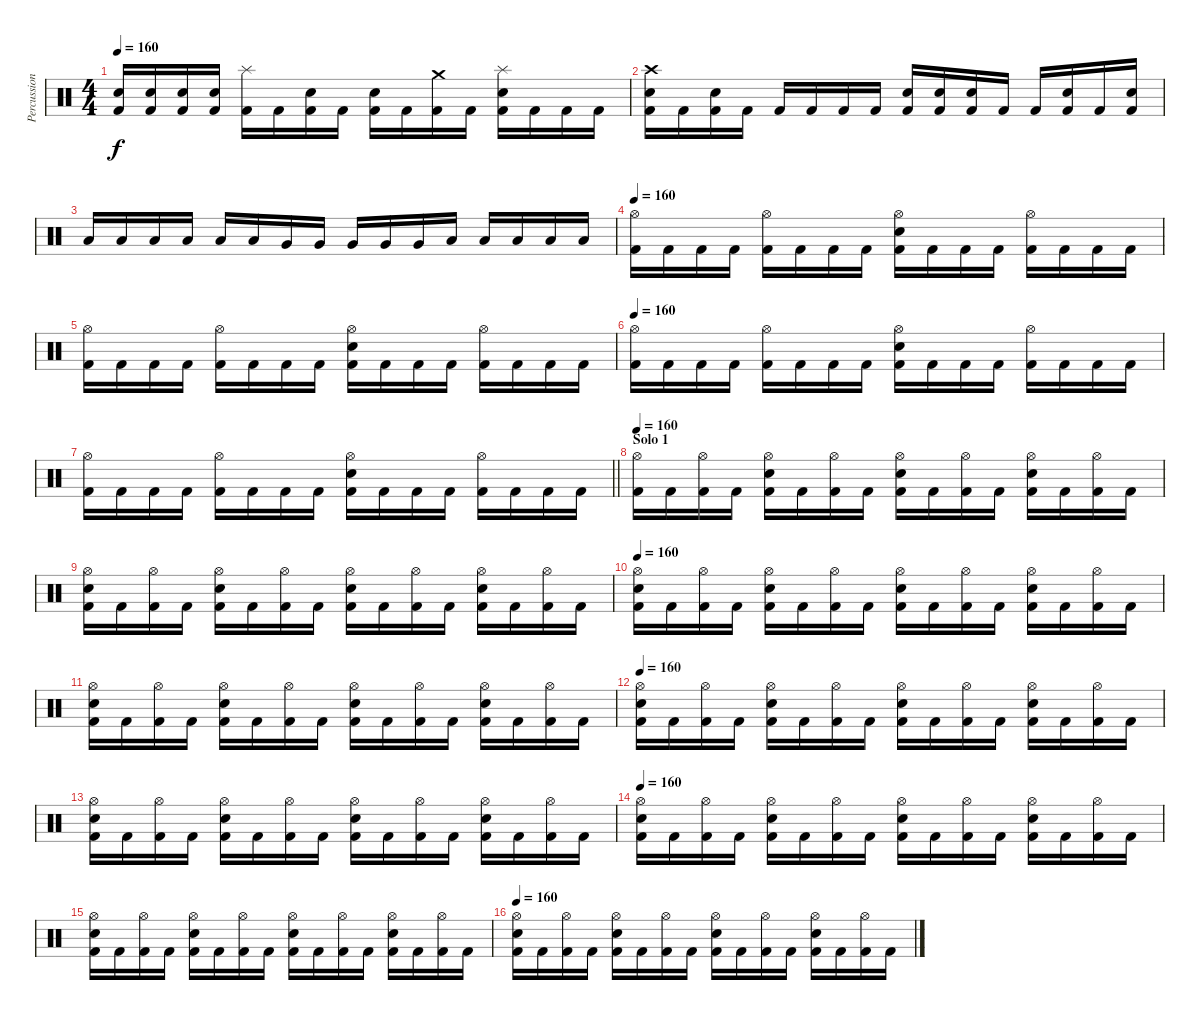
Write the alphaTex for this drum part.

\track ("Percussions" "Percussion") {instrument percussion}
\staff {score}
\articulation defaults
\ts (4 4)
\tempo 160
\clef neutral
\ks c
("Electric Snare (hit)" "Kick (hit) 2").16{dy f} ("Electric Snare (hit)" "Kick (hit) 2").16 ("Electric Snare (hit)" "Kick (hit) 2").16 ("Electric Snare (hit)" "Kick (hit) 2").16 ("Splash (hit)" "Kick (hit) 2").16 "Kick (hit) 2".16 ("Electric Snare (hit)" "Kick (hit) 2").16 "Kick (hit) 2".16 ("Electric Snare (hit)" "Kick (hit) 2").16 "Kick (hit) 2".16 ("Crash medium (hit)" "Kick (hit) 2").16 "Kick (hit) 2".16 ("Splash (hit)" "Electric Snare (hit)" "Kick (hit) 2").16 "Kick (hit) 2".16 "Kick (hit) 2".16 "Kick (hit) 2".16 |
("Crash high (hit)" "Electric Snare (hit)" "Kick (hit) 2").16 "Kick (hit) 2".16 ("Electric Snare (hit)" "Kick (hit) 2").16 "Kick (hit) 2".16 "Kick (hit) 2".16 "Kick (hit) 2".16 "Kick (hit) 2".16 "Kick (hit) 2".16 ("Electric Snare (hit)" "Kick (hit) 2").16 ("Electric Snare (hit)" "Kick (hit) 2").16 ("Electric Snare (hit)" "Kick (hit) 2").16 "Kick (hit) 2".16 "Kick (hit) 2".16 ("Electric Snare (hit)" "Kick (hit) 2").16 "Kick (hit) 2".16 ("Electric Snare (hit)" "Kick (hit) 2").16 |
"Low Tom (hit)".16 "Low Tom (hit)".16 "Low Tom (hit)".16 "Low Tom (hit)".16 "Low Tom (hit)".16 "Low Tom (hit)".16 "Very Low Tom (hit)".16 "Very Low Tom (hit)".16 "Very Low Tom (hit)".16 "Very Low Tom (hit)".16 "Very Low Tom (hit)".16 "Low Floor Tom (hit)".16 "Low Floor Tom (hit)".16 "Low Floor Tom (hit)".16 "Low Floor Tom (hit)".16 "Low Floor Tom (hit)".16 |
\tempo 160
("Hi-Hat (open)" "Kick (hit) 2").16 "Kick (hit) 2".16 "Kick (hit) 2".16 "Kick (hit) 2".16 ("Hi-Hat (open)" "Kick (hit) 2").16 "Kick (hit) 2".16 "Kick (hit) 2".16 "Kick (hit) 2".16 ("Hi-Hat (open)" "Electric Snare (hit)" "Kick (hit) 2").16 "Kick (hit) 2".16 "Kick (hit) 2".16 "Kick (hit) 2".16 ("Hi-Hat (open)" "Kick (hit) 2").16 "Kick (hit) 2".16 "Kick (hit) 2".16 "Kick (hit) 2".16 |
("Hi-Hat (open)" "Kick (hit) 2").16 "Kick (hit) 2".16 "Kick (hit) 2".16 "Kick (hit) 2".16 ("Hi-Hat (open)" "Kick (hit) 2").16 "Kick (hit) 2".16 "Kick (hit) 2".16 "Kick (hit) 2".16 ("Hi-Hat (open)" "Electric Snare (hit)" "Kick (hit) 2").16 "Kick (hit) 2".16 "Kick (hit) 2".16 "Kick (hit) 2".16 ("Hi-Hat (open)" "Kick (hit) 2").16 "Kick (hit) 2".16 "Kick (hit) 2".16 "Kick (hit) 2".16 |
\tempo 160
("Hi-Hat (open)" "Kick (hit) 2").16 "Kick (hit) 2".16 "Kick (hit) 2".16 "Kick (hit) 2".16 ("Hi-Hat (open)" "Kick (hit) 2").16 "Kick (hit) 2".16 "Kick (hit) 2".16 "Kick (hit) 2".16 ("Hi-Hat (open)" "Electric Snare (hit)" "Kick (hit) 2").16 "Kick (hit) 2".16 "Kick (hit) 2".16 "Kick (hit) 2".16 ("Hi-Hat (open)" "Kick (hit) 2").16 "Kick (hit) 2".16 "Kick (hit) 2".16 "Kick (hit) 2".16 |
\barLineRight lightlight
("Hi-Hat (open)" "Kick (hit) 2").16 "Kick (hit) 2".16 "Kick (hit) 2".16 "Kick (hit) 2".16 ("Hi-Hat (open)" "Kick (hit) 2").16 "Kick (hit) 2".16 "Kick (hit) 2".16 "Kick (hit) 2".16 ("Hi-Hat (open)" "Electric Snare (hit)" "Kick (hit) 2").16 "Kick (hit) 2".16 "Kick (hit) 2".16 "Kick (hit) 2".16 ("Hi-Hat (open)" "Kick (hit) 2").16 "Kick (hit) 2".16 "Kick (hit) 2".16 "Kick (hit) 2".16 |
\section ("" "Solo 1")
\tempo 160
("Hi-Hat (open)" "Kick (hit) 2").16 "Kick (hit) 2".16 ("Hi-Hat (open)" "Kick (hit) 2").16 "Kick (hit) 2".16 ("Hi-Hat (open)" "Electric Snare (hit)" "Kick (hit) 2").16 "Kick (hit) 2".16 ("Hi-Hat (open)" "Kick (hit) 2").16 "Kick (hit) 2".16 ("Hi-Hat (open)" "Electric Snare (hit)" "Kick (hit) 2").16 "Kick (hit) 2".16 ("Hi-Hat (open)" "Kick (hit) 2").16 "Kick (hit) 2".16 ("Hi-Hat (open)" "Electric Snare (hit)" "Kick (hit) 2").16 "Kick (hit) 2".16 ("Hi-Hat (open)" "Kick (hit) 2").16 "Kick (hit) 2".16 |
("Hi-Hat (open)" "Electric Snare (hit)" "Kick (hit) 2").16 "Kick (hit) 2".16 ("Hi-Hat (open)" "Kick (hit) 2").16 "Kick (hit) 2".16 ("Hi-Hat (open)" "Electric Snare (hit)" "Kick (hit) 2").16 "Kick (hit) 2".16 ("Hi-Hat (open)" "Kick (hit) 2").16 "Kick (hit) 2".16 ("Hi-Hat (open)" "Electric Snare (hit)" "Kick (hit) 2").16 "Kick (hit) 2".16 ("Hi-Hat (open)" "Kick (hit) 2").16 "Kick (hit) 2".16 ("Hi-Hat (open)" "Electric Snare (hit)" "Kick (hit) 2").16 "Kick (hit) 2".16 ("Hi-Hat (open)" "Kick (hit) 2").16 "Kick (hit) 2".16 |
\tempo 160
("Hi-Hat (open)" "Electric Snare (hit)" "Kick (hit) 2").16 "Kick (hit) 2".16 ("Hi-Hat (open)" "Kick (hit) 2").16 "Kick (hit) 2".16 ("Hi-Hat (open)" "Electric Snare (hit)" "Kick (hit) 2").16 "Kick (hit) 2".16 ("Hi-Hat (open)" "Kick (hit) 2").16 "Kick (hit) 2".16 ("Hi-Hat (open)" "Electric Snare (hit)" "Kick (hit) 2").16 "Kick (hit) 2".16 ("Hi-Hat (open)" "Kick (hit) 2").16 "Kick (hit) 2".16 ("Hi-Hat (open)" "Electric Snare (hit)" "Kick (hit) 2").16 "Kick (hit) 2".16 ("Hi-Hat (open)" "Kick (hit) 2").16 "Kick (hit) 2".16 |
("Hi-Hat (open)" "Electric Snare (hit)" "Kick (hit) 2").16 "Kick (hit) 2".16 ("Hi-Hat (open)" "Kick (hit) 2").16 "Kick (hit) 2".16 ("Hi-Hat (open)" "Electric Snare (hit)" "Kick (hit) 2").16 "Kick (hit) 2".16 ("Hi-Hat (open)" "Kick (hit) 2").16 "Kick (hit) 2".16 ("Hi-Hat (open)" "Electric Snare (hit)" "Kick (hit) 2").16 "Kick (hit) 2".16 ("Hi-Hat (open)" "Kick (hit) 2").16 "Kick (hit) 2".16 ("Hi-Hat (open)" "Electric Snare (hit)" "Kick (hit) 2").16 "Kick (hit) 2".16 ("Hi-Hat (open)" "Kick (hit) 2").16 "Kick (hit) 2".16 |
\tempo 160
("Hi-Hat (open)" "Electric Snare (hit)" "Kick (hit) 2").16 "Kick (hit) 2".16 ("Hi-Hat (open)" "Kick (hit) 2").16 "Kick (hit) 2".16 ("Hi-Hat (open)" "Electric Snare (hit)" "Kick (hit) 2").16 "Kick (hit) 2".16 ("Hi-Hat (open)" "Kick (hit) 2").16 "Kick (hit) 2".16 ("Hi-Hat (open)" "Electric Snare (hit)" "Kick (hit) 2").16 "Kick (hit) 2".16 ("Hi-Hat (open)" "Kick (hit) 2").16 "Kick (hit) 2".16 ("Hi-Hat (open)" "Electric Snare (hit)" "Kick (hit) 2").16 "Kick (hit) 2".16 ("Hi-Hat (open)" "Kick (hit) 2").16 "Kick (hit) 2".16 |
("Hi-Hat (open)" "Electric Snare (hit)" "Kick (hit) 2").16 "Kick (hit) 2".16 ("Hi-Hat (open)" "Kick (hit) 2").16 "Kick (hit) 2".16 ("Hi-Hat (open)" "Electric Snare (hit)" "Kick (hit) 2").16 "Kick (hit) 2".16 ("Hi-Hat (open)" "Kick (hit) 2").16 "Kick (hit) 2".16 ("Hi-Hat (open)" "Electric Snare (hit)" "Kick (hit) 2").16 "Kick (hit) 2".16 ("Hi-Hat (open)" "Kick (hit) 2").16 "Kick (hit) 2".16 ("Hi-Hat (open)" "Electric Snare (hit)" "Kick (hit) 2").16 "Kick (hit) 2".16 ("Hi-Hat (open)" "Kick (hit) 2").16 "Kick (hit) 2".16 |
\tempo 160
("Hi-Hat (open)" "Electric Snare (hit)" "Kick (hit) 2").16 "Kick (hit) 2".16 ("Hi-Hat (open)" "Kick (hit) 2").16 "Kick (hit) 2".16 ("Hi-Hat (open)" "Electric Snare (hit)" "Kick (hit) 2").16 "Kick (hit) 2".16 ("Hi-Hat (open)" "Kick (hit) 2").16 "Kick (hit) 2".16 ("Hi-Hat (open)" "Electric Snare (hit)" "Kick (hit) 2").16 "Kick (hit) 2".16 ("Hi-Hat (open)" "Kick (hit) 2").16 "Kick (hit) 2".16 ("Hi-Hat (open)" "Electric Snare (hit)" "Kick (hit) 2").16 "Kick (hit) 2".16 ("Hi-Hat (open)" "Kick (hit) 2").16 "Kick (hit) 2".16 |
("Hi-Hat (open)" "Electric Snare (hit)" "Kick (hit) 2").16 "Kick (hit) 2".16 ("Hi-Hat (open)" "Kick (hit) 2").16 "Kick (hit) 2".16 ("Hi-Hat (open)" "Electric Snare (hit)" "Kick (hit) 2").16 "Kick (hit) 2".16 ("Hi-Hat (open)" "Kick (hit) 2").16 "Kick (hit) 2".16 ("Hi-Hat (open)" "Electric Snare (hit)" "Kick (hit) 2").16 "Kick (hit) 2".16 ("Hi-Hat (open)" "Kick (hit) 2").16 "Kick (hit) 2".16 ("Hi-Hat (open)" "Electric Snare (hit)" "Kick (hit) 2").16 "Kick (hit) 2".16 ("Hi-Hat (open)" "Kick (hit) 2").16 "Kick (hit) 2".16 |
\tempo 160
("Hi-Hat (open)" "Electric Snare (hit)" "Kick (hit) 2").16 "Kick (hit) 2".16 ("Hi-Hat (open)" "Kick (hit) 2").16 "Kick (hit) 2".16 ("Hi-Hat (open)" "Electric Snare (hit)" "Kick (hit) 2").16 "Kick (hit) 2".16 ("Hi-Hat (open)" "Kick (hit) 2").16 "Kick (hit) 2".16 ("Hi-Hat (open)" "Electric Snare (hit)" "Kick (hit) 2").16 "Kick (hit) 2".16 ("Hi-Hat (open)" "Kick (hit) 2").16 "Kick (hit) 2".16 ("Hi-Hat (open)" "Electric Snare (hit)" "Kick (hit) 2").16 "Kick (hit) 2".16 ("Hi-Hat (open)" "Kick (hit) 2").16 "Kick (hit) 2".16
